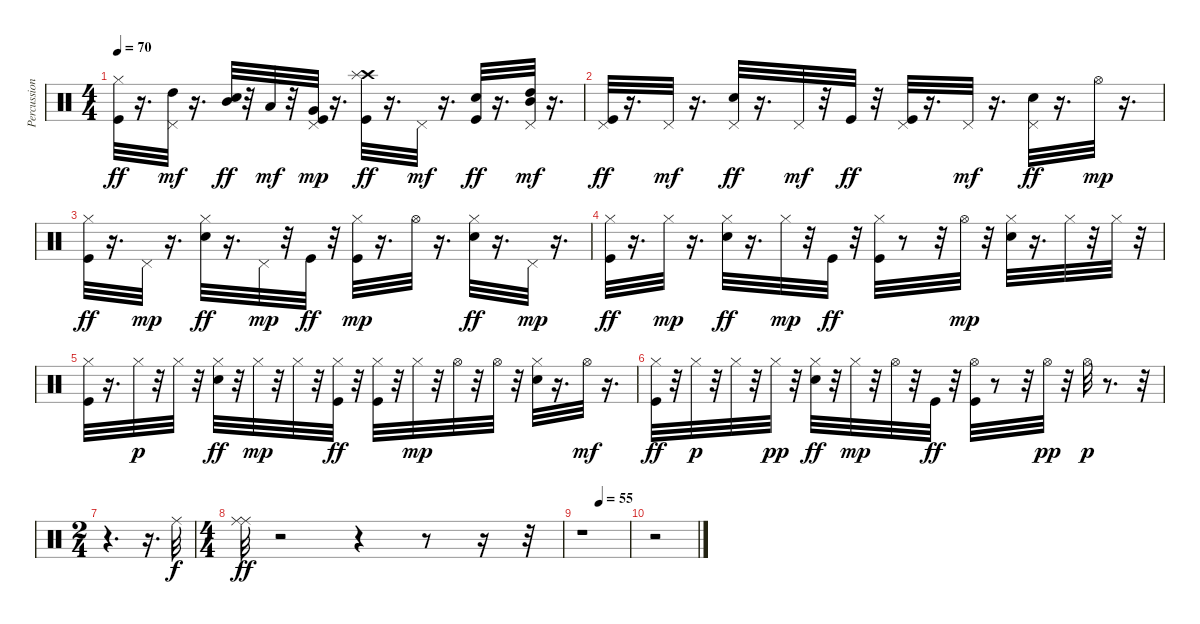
\track ("Percussion" "Percussion") {instrument percussion}
\staff {score}
\articulation defaults
\ts (4 4)
\tempo 70
\clef neutral
\ks c
("Hi-Hat (closed)" "Kick (hit)").32{dy ff} r.16{d} ("Pedal Hi-Hat (hit)" "High Tom (hit)").32{dy mf} r.16{d} ("Snare (hit) 2" "Mid Tom (hit)").32{dy ff} r.32 "Low Tom (hit)".32{dy mf} r.32 ("Kick (hit)" "Very Low Tom (hit)" "Pedal Hi-Hat (hit)").32{dy mp} r.16{d} ("Crash high (hit)" "Splash (hit)" "Kick (hit)").32{dy ff} r.16{d} "Pedal Hi-Hat (hit)".32{dy mf} r.16{d} ("Kick (hit)" "Snare (hit) 2").32{dy ff} r.16{d} ("Mid Tom (hit)" "Pedal Hi-Hat (hit)" "High Tom (hit)").32{dy mf} r.16{d} |
("Pedal Hi-Hat (hit)" "Kick (hit)").32{dy ff} r.16{d} "Pedal Hi-Hat (hit)".32{dy mf} r.16{d} ("Pedal Hi-Hat (hit)" "Snare (hit) 2").32{dy ff} r.16{d} "Pedal Hi-Hat (hit)".32{dy mf} r.32 "Kick (hit)".32{dy ff} r.32 ("Pedal Hi-Hat (hit)" "Kick (hit)").32 r.16{d} "Pedal Hi-Hat (hit)".32{dy mf} r.16{d} ("Pedal Hi-Hat (hit)" "Snare (hit) 2").32{dy ff} r.16{d} "Hi-Hat (open)".32{dy mp} r.16{d} |
("Hi-Hat (closed)" "Kick (hit)").32{dy ff} r.16{d} "Pedal Hi-Hat (hit)".32{dy mp} r.16{d} ("Hi-Hat (closed)" "Snare (hit) 2").32{dy ff} r.16{d} "Pedal Hi-Hat (hit)".32{dy mp} r.32 "Kick (hit)".32{dy ff} r.32 ("Kick (hit)" "Hi-Hat (closed)").32{dy mp} r.16{d} "Hi-Hat (open)".32 r.16{d} ("Hi-Hat (closed)" "Snare (hit) 2").32{dy ff} r.16{d} "Pedal Hi-Hat (hit)".32{dy mp} r.16{d} |
("Hi-Hat (closed)" "Kick (hit)").32{dy ff} r.16{d} "Hi-Hat (closed)".32{dy mp} r.16{d} ("Hi-Hat (closed)" "Snare (hit) 2").32{dy ff} r.16{d} "Hi-Hat (closed)".32{dy mp} r.32 "Kick (hit)".32{dy ff} r.32 ("Hi-Hat (closed)" "Kick (hit)").32 r.8 r.32 "Hi-Hat (open)".32{dy mp} r.32 ("Snare (hit) 2" "Hi-Hat (closed)").32 r.16{d} "Hi-Hat (closed)".32 r.32 "Hi-Hat (closed)".32 r.32 |
("Kick (hit)" "Hi-Hat (closed)").32 r.16{d} "Hi-Hat (closed)".32{dy p} r.32 "Hi-Hat (closed)".32 r.32 ("Hi-Hat (closed)" "Snare (hit) 2").32{dy ff} r.32 "Hi-Hat (closed)".32{dy mp} r.32 "Hi-Hat (closed)".32 r.32 ("Hi-Hat (closed)" "Kick (hit)").32{dy ff} r.32 ("Hi-Hat (closed)" "Kick (hit)").32 r.32 "Hi-Hat (closed)".32{dy mp} r.32 "Hi-Hat (open)".32 r.32 "Hi-Hat (open)".32 r.32 ("Snare (hit) 2" "Hi-Hat (closed)").32 r.16{d} "Hi-Hat (open)".32{dy mf} r.16{d} |
("Hi-Hat (closed)" "Kick (hit)").32{dy ff} r.32 "Hi-Hat (closed)".32{dy p} r.32 "Hi-Hat (closed)".32 r.32 "Hi-Hat (closed)".32{dy pp} r.32 ("Hi-Hat (closed)" "Snare (hit) 2").32{dy ff} r.32 "Hi-Hat (closed)".32{dy mp} r.32 "Hi-Hat (open)".32 r.32 "Kick (hit)".32{dy ff} r.32 ("Hi-Hat (open)" "Kick (hit)").32 r.8 r.32 "Hi-Hat (open)".32{dy pp} r.32 "Hi-Hat (open)".32{dy p} r.8{d} r.32 |
\ts (2 4)
r.4{d} r.16{d} "Ride (middle)".32{dy f} |
\ts (4 4)
("Ride (middle)" "Ride (middle)").32{dy ff} r.2 r.4 r.8 r.16 r.32 |
\tempo (55 0.375)
r.1 |
r.2
